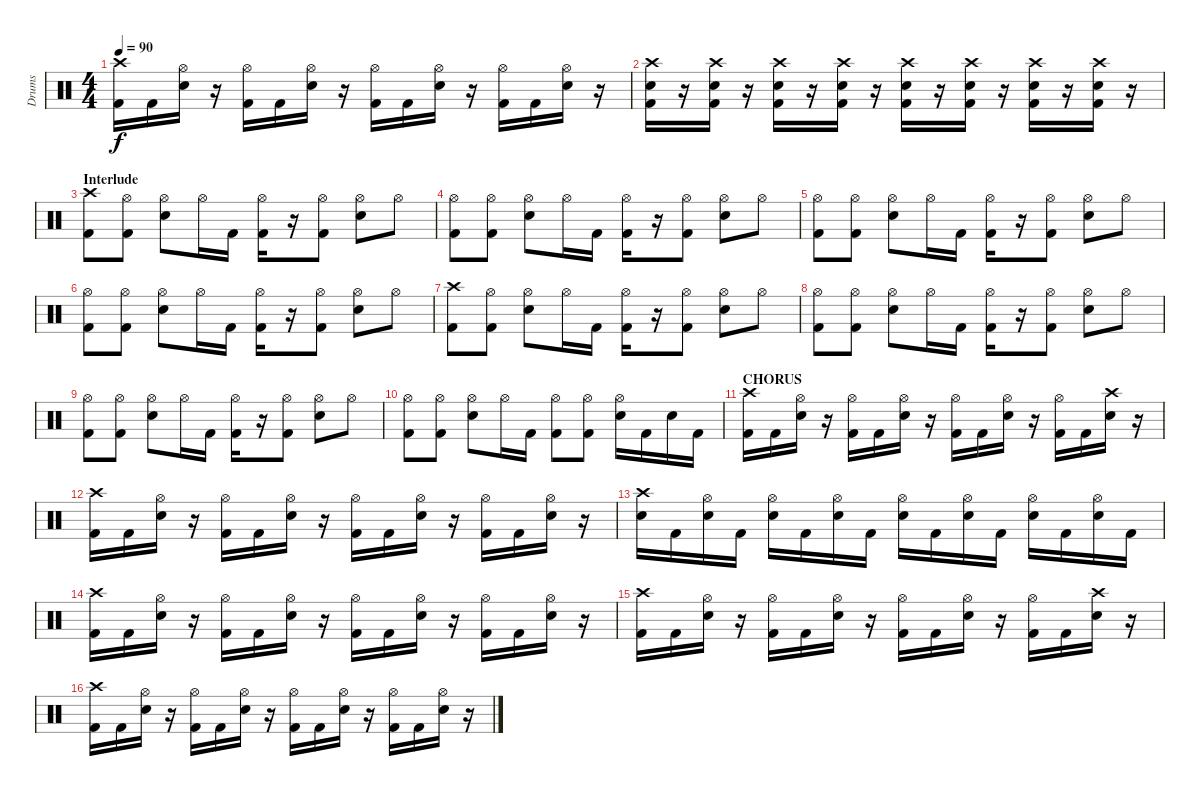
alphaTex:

\track ("Drums" "Drums") {instrument percussion}
\staff {score}
\articulation defaults
\ts (4 4)
\tempo 90
\clef neutral
\ks c
("Crash high (hit)" "Kick (hit) 2").16{dy f} "Kick (hit) 2".16 ("Hi-Hat (open)" "Electric Snare (hit)").16 r.16 ("Hi-Hat (open)" "Kick (hit) 2").16 "Kick (hit) 2".16 ("Hi-Hat (open)" "Electric Snare (hit)").16 r.16 ("Hi-Hat (open)" "Kick (hit) 2").16 "Kick (hit) 2".16 ("Hi-Hat (open)" "Electric Snare (hit)").16 r.16 ("Hi-Hat (open)" "Kick (hit) 2").16 "Kick (hit) 2".16 ("Hi-Hat (open)" "Electric Snare (hit)").16 r.16 |
("Crash high (hit)" "Electric Snare (hit)" "Kick (hit) 2").16 r.16 ("Crash high (hit)" "Electric Snare (hit)" "Kick (hit) 2").16 r.16 ("Crash high (hit)" "Electric Snare (hit)" "Kick (hit) 2").16 r.16 ("Crash high (hit)" "Electric Snare (hit)" "Kick (hit) 2").16 r.16 ("Crash high (hit)" "Electric Snare (hit)" "Kick (hit) 2").16 r.16 ("Crash high (hit)" "Electric Snare (hit)" "Kick (hit) 2").16 r.16 ("Crash high (hit)" "Electric Snare (hit)" "Kick (hit) 2").16 r.16 ("Crash high (hit)" "Electric Snare (hit)" "Kick (hit) 2").16 r.16 |
\section ("" "Interlude")
("Crash high (hit)" "Kick (hit) 2").8 ("Hi-Hat (open)" "Kick (hit) 2").8 ("Hi-Hat (open)" "Electric Snare (hit)").8 "Hi-Hat (open)".16 "Kick (hit) 2".16 ("Hi-Hat (open)" "Kick (hit) 2").16 r.16 ("Hi-Hat (open)" "Kick (hit) 2").8 ("Hi-Hat (open)" "Electric Snare (hit)").8 "Hi-Hat (open)".8 |
("Hi-Hat (open)" "Kick (hit) 2").8 ("Hi-Hat (open)" "Kick (hit) 2").8 ("Hi-Hat (open)" "Electric Snare (hit)").8 "Hi-Hat (open)".16 "Kick (hit) 2".16 ("Hi-Hat (open)" "Kick (hit) 2").16 r.16 ("Hi-Hat (open)" "Kick (hit) 2").8 ("Hi-Hat (open)" "Electric Snare (hit)").8 "Hi-Hat (open)".8 |
("Hi-Hat (open)" "Kick (hit) 2").8 ("Hi-Hat (open)" "Kick (hit) 2").8 ("Hi-Hat (open)" "Electric Snare (hit)").8 "Hi-Hat (open)".16 "Kick (hit) 2".16 ("Hi-Hat (open)" "Kick (hit) 2").16 r.16 ("Hi-Hat (open)" "Kick (hit) 2").8 ("Hi-Hat (open)" "Electric Snare (hit)").8 "Hi-Hat (open)".8 |
("Hi-Hat (open)" "Kick (hit) 2").8 ("Hi-Hat (open)" "Kick (hit) 2").8 ("Hi-Hat (open)" "Electric Snare (hit)").8 "Hi-Hat (open)".16 "Kick (hit) 2".16 ("Hi-Hat (open)" "Kick (hit) 2").16 r.16 ("Hi-Hat (open)" "Kick (hit) 2").8 ("Hi-Hat (open)" "Electric Snare (hit)").8 "Hi-Hat (open)".8 |
("Crash high (hit)" "Kick (hit) 2").8 ("Hi-Hat (open)" "Kick (hit) 2").8 ("Hi-Hat (open)" "Electric Snare (hit)").8 "Hi-Hat (open)".16 "Kick (hit) 2".16 ("Hi-Hat (open)" "Kick (hit) 2").16 r.16 ("Hi-Hat (open)" "Kick (hit) 2").8 ("Hi-Hat (open)" "Electric Snare (hit)").8 "Hi-Hat (open)".8 |
("Hi-Hat (open)" "Kick (hit) 2").8 ("Hi-Hat (open)" "Kick (hit) 2").8 ("Hi-Hat (open)" "Electric Snare (hit)").8 "Hi-Hat (open)".16 "Kick (hit) 2".16 ("Hi-Hat (open)" "Kick (hit) 2").16 r.16 ("Hi-Hat (open)" "Kick (hit) 2").8 ("Hi-Hat (open)" "Electric Snare (hit)").8 "Hi-Hat (open)".8 |
("Hi-Hat (open)" "Kick (hit) 2").8 ("Hi-Hat (open)" "Kick (hit) 2").8 ("Hi-Hat (open)" "Electric Snare (hit)").8 "Hi-Hat (open)".16 "Kick (hit) 2".16 ("Hi-Hat (open)" "Kick (hit) 2").16 r.16 ("Hi-Hat (open)" "Kick (hit) 2").8 ("Hi-Hat (open)" "Electric Snare (hit)").8 "Hi-Hat (open)".8 |
("Hi-Hat (open)" "Kick (hit) 2").8 ("Hi-Hat (open)" "Kick (hit) 2").8 ("Hi-Hat (open)" "Electric Snare (hit)").8 "Hi-Hat (open)".16 "Kick (hit) 2".16 ("Hi-Hat (open)" "Kick (hit) 2").8 ("Hi-Hat (open)" "Kick (hit) 2").8 ("Hi-Hat (open)" "Electric Snare (hit)").16 "Kick (hit) 2".16 "Electric Snare (hit)".16 "Kick (hit) 2".16 |
\section ("" "CHORUS")
("Crash high (hit)" "Kick (hit) 2").16 "Kick (hit) 2".16 ("Hi-Hat (open)" "Electric Snare (hit)").16 r.16 ("Hi-Hat (open)" "Kick (hit) 2").16 "Kick (hit) 2".16 ("Hi-Hat (open)" "Electric Snare (hit)").16 r.16 ("Hi-Hat (open)" "Kick (hit) 2").16 "Kick (hit) 2".16 ("Hi-Hat (open)" "Electric Snare (hit)").16 r.16 ("Hi-Hat (open)" "Kick (hit) 2").16 "Kick (hit) 2".16 ("Crash high (hit)" "Electric Snare (hit)").16 r.16 |
("Crash high (hit)" "Kick (hit) 2").16 "Kick (hit) 2".16 ("Hi-Hat (open)" "Electric Snare (hit)").16 r.16 ("Hi-Hat (open)" "Kick (hit) 2").16 "Kick (hit) 2".16 ("Hi-Hat (open)" "Electric Snare (hit)").16 r.16 ("Hi-Hat (open)" "Kick (hit) 2").16 "Kick (hit) 2".16 ("Hi-Hat (open)" "Electric Snare (hit)").16 r.16 ("Hi-Hat (open)" "Kick (hit) 2").16 "Kick (hit) 2".16 ("Hi-Hat (open)" "Electric Snare (hit)").16 r.16 |
("Crash high (hit)" "Electric Snare (hit)").16 "Kick (hit) 2".16 ("Hi-Hat (open)" "Electric Snare (hit)").16 "Kick (hit) 2".16 ("Hi-Hat (open)" "Electric Snare (hit)").16 "Kick (hit) 2".16 ("Hi-Hat (open)" "Electric Snare (hit)").16 "Kick (hit) 2".16 ("Hi-Hat (open)" "Electric Snare (hit)").16 "Kick (hit) 2".16 ("Hi-Hat (open)" "Electric Snare (hit)").16 "Kick (hit) 2".16 ("Hi-Hat (open)" "Electric Snare (hit)").16 "Kick (hit) 2".16 ("Hi-Hat (open)" "Electric Snare (hit)").16 "Kick (hit) 2".16 |
("Crash high (hit)" "Kick (hit) 2").16 "Kick (hit) 2".16 ("Hi-Hat (open)" "Electric Snare (hit)").16 r.16 ("Hi-Hat (open)" "Kick (hit) 2").16 "Kick (hit) 2".16 ("Hi-Hat (open)" "Electric Snare (hit)").16 r.16 ("Hi-Hat (open)" "Kick (hit) 2").16 "Kick (hit) 2".16 ("Hi-Hat (open)" "Electric Snare (hit)").16 r.16 ("Hi-Hat (open)" "Kick (hit) 2").16 "Kick (hit) 2".16 ("Hi-Hat (open)" "Electric Snare (hit)").16 r.16 |
("Crash high (hit)" "Kick (hit) 2").16 "Kick (hit) 2".16 ("Hi-Hat (open)" "Electric Snare (hit)").16 r.16 ("Hi-Hat (open)" "Kick (hit) 2").16 "Kick (hit) 2".16 ("Hi-Hat (open)" "Electric Snare (hit)").16 r.16 ("Hi-Hat (open)" "Kick (hit) 2").16 "Kick (hit) 2".16 ("Hi-Hat (open)" "Electric Snare (hit)").16 r.16 ("Hi-Hat (open)" "Kick (hit) 2").16 "Kick (hit) 2".16 ("Crash high (hit)" "Electric Snare (hit)").16 r.16 |
("Crash high (hit)" "Kick (hit) 2").16 "Kick (hit) 2".16 ("Hi-Hat (open)" "Electric Snare (hit)").16 r.16 ("Hi-Hat (open)" "Kick (hit) 2").16 "Kick (hit) 2".16 ("Hi-Hat (open)" "Electric Snare (hit)").16 r.16 ("Hi-Hat (open)" "Kick (hit) 2").16 "Kick (hit) 2".16 ("Hi-Hat (open)" "Electric Snare (hit)").16 r.16 ("Hi-Hat (open)" "Kick (hit) 2").16 "Kick (hit) 2".16 ("Hi-Hat (open)" "Electric Snare (hit)").16 r.16
